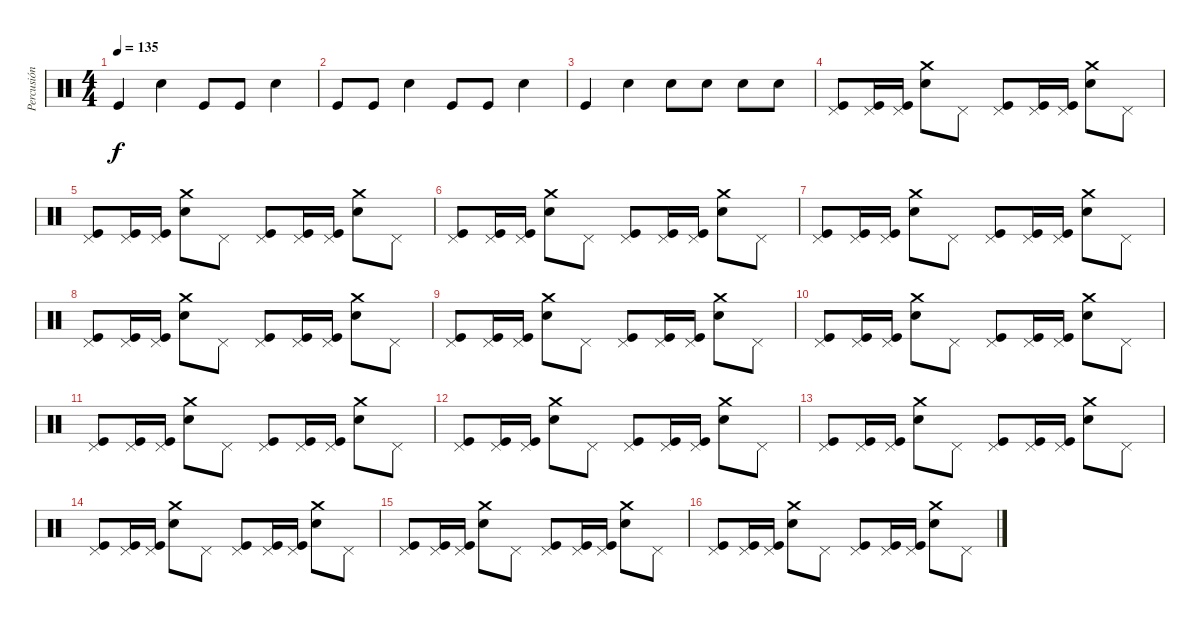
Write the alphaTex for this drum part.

\track ("Percusión" "Percusión") {instrument percussion}
\staff {score}
\articulation defaults
\ts (4 4)
\tempo 135
\clef neutral
\ks c "Kick (hit)".4{dy f} "Electric Snare (hit)".4 "Kick (hit)".8 "Kick (hit)".8 "Electric Snare (hit)".4
|
"Kick (hit)".8 "Kick (hit)".8 "Electric Snare (hit)".4 "Kick (hit)".8 "Kick (hit)".8 "Electric Snare (hit)".4 |
"Kick (hit)".4 "Electric Snare (hit)".4 "Electric Snare (hit)".8 "Electric Snare (hit)".8 "Electric Snare (hit)".8 "Electric Snare (hit)".8 |
("Pedal Hi-Hat (hit)" "Kick (hit)").8 ("Pedal Hi-Hat (hit)" "Kick (hit)").16 ("Pedal Hi-Hat (hit)" "Kick (hit)").16 ("Crash medium (hit)" "Electric Snare (hit)").8 "Pedal Hi-Hat (hit)".8 ("Pedal Hi-Hat (hit)" "Kick (hit)").8 ("Pedal Hi-Hat (hit)" "Kick (hit)").16 ("Pedal Hi-Hat (hit)" "Kick (hit)").16 ("Crash medium (hit)" "Electric Snare (hit)").8 "Pedal Hi-Hat (hit)".8 |
("Pedal Hi-Hat (hit)" "Kick (hit)").8 ("Pedal Hi-Hat (hit)" "Kick (hit)").16 ("Pedal Hi-Hat (hit)" "Kick (hit)").16 ("Crash medium (hit)" "Electric Snare (hit)").8 "Pedal Hi-Hat (hit)".8 ("Pedal Hi-Hat (hit)" "Kick (hit)").8 ("Pedal Hi-Hat (hit)" "Kick (hit)").16 ("Pedal Hi-Hat (hit)" "Kick (hit)").16 ("Crash medium (hit)" "Electric Snare (hit)").8 "Pedal Hi-Hat (hit)".8 |
("Pedal Hi-Hat (hit)" "Kick (hit)").8 ("Pedal Hi-Hat (hit)" "Kick (hit)").16 ("Pedal Hi-Hat (hit)" "Kick (hit)").16 ("Crash medium (hit)" "Electric Snare (hit)").8 "Pedal Hi-Hat (hit)".8 ("Pedal Hi-Hat (hit)" "Kick (hit)").8 ("Pedal Hi-Hat (hit)" "Kick (hit)").16 ("Pedal Hi-Hat (hit)" "Kick (hit)").16 ("Crash medium (hit)" "Electric Snare (hit)").8 "Pedal Hi-Hat (hit)".8 |
("Pedal Hi-Hat (hit)" "Kick (hit)").8 ("Pedal Hi-Hat (hit)" "Kick (hit)").16 ("Pedal Hi-Hat (hit)" "Kick (hit)").16 ("Crash medium (hit)" "Electric Snare (hit)").8 "Pedal Hi-Hat (hit)".8 ("Pedal Hi-Hat (hit)" "Kick (hit)").8 ("Pedal Hi-Hat (hit)" "Kick (hit)").16 ("Pedal Hi-Hat (hit)" "Kick (hit)").16 ("Crash medium (hit)" "Electric Snare (hit)").8 "Pedal Hi-Hat (hit)".8 |
("Pedal Hi-Hat (hit)" "Kick (hit)").8 ("Pedal Hi-Hat (hit)" "Kick (hit)").16 ("Pedal Hi-Hat (hit)" "Kick (hit)").16 ("Crash medium (hit)" "Electric Snare (hit)").8 "Pedal Hi-Hat (hit)".8 ("Pedal Hi-Hat (hit)" "Kick (hit)").8 ("Pedal Hi-Hat (hit)" "Kick (hit)").16 ("Pedal Hi-Hat (hit)" "Kick (hit)").16 ("Crash medium (hit)" "Electric Snare (hit)").8 "Pedal Hi-Hat (hit)".8 |
("Pedal Hi-Hat (hit)" "Kick (hit)").8 ("Pedal Hi-Hat (hit)" "Kick (hit)").16 ("Pedal Hi-Hat (hit)" "Kick (hit)").16 ("Crash medium (hit)" "Electric Snare (hit)").8 "Pedal Hi-Hat (hit)".8 ("Pedal Hi-Hat (hit)" "Kick (hit)").8 ("Pedal Hi-Hat (hit)" "Kick (hit)").16 ("Pedal Hi-Hat (hit)" "Kick (hit)").16 ("Crash medium (hit)" "Electric Snare (hit)").8 "Pedal Hi-Hat (hit)".8 |
("Pedal Hi-Hat (hit)" "Kick (hit)").8 ("Pedal Hi-Hat (hit)" "Kick (hit)").16 ("Pedal Hi-Hat (hit)" "Kick (hit)").16 ("Crash medium (hit)" "Electric Snare (hit)").8 "Pedal Hi-Hat (hit)".8 ("Pedal Hi-Hat (hit)" "Kick (hit)").8 ("Pedal Hi-Hat (hit)" "Kick (hit)").16 ("Pedal Hi-Hat (hit)" "Kick (hit)").16 ("Crash medium (hit)" "Electric Snare (hit)").8 "Pedal Hi-Hat (hit)".8 |
("Pedal Hi-Hat (hit)" "Kick (hit)").8 ("Pedal Hi-Hat (hit)" "Kick (hit)").16 ("Pedal Hi-Hat (hit)" "Kick (hit)").16 ("Crash medium (hit)" "Electric Snare (hit)").8 "Pedal Hi-Hat (hit)".8 ("Pedal Hi-Hat (hit)" "Kick (hit)").8 ("Pedal Hi-Hat (hit)" "Kick (hit)").16 ("Pedal Hi-Hat (hit)" "Kick (hit)").16 ("Crash medium (hit)" "Electric Snare (hit)").8 "Pedal Hi-Hat (hit)".8 |
("Pedal Hi-Hat (hit)" "Kick (hit)").8 ("Pedal Hi-Hat (hit)" "Kick (hit)").16 ("Pedal Hi-Hat (hit)" "Kick (hit)").16 ("Crash medium (hit)" "Electric Snare (hit)").8 "Pedal Hi-Hat (hit)".8 ("Pedal Hi-Hat (hit)" "Kick (hit)").8 ("Pedal Hi-Hat (hit)" "Kick (hit)").16 ("Pedal Hi-Hat (hit)" "Kick (hit)").16 ("Crash medium (hit)" "Electric Snare (hit)").8 "Pedal Hi-Hat (hit)".8 |
("Pedal Hi-Hat (hit)" "Kick (hit)").8 ("Pedal Hi-Hat (hit)" "Kick (hit)").16 ("Pedal Hi-Hat (hit)" "Kick (hit)").16 ("Crash medium (hit)" "Electric Snare (hit)").8 "Pedal Hi-Hat (hit)".8 ("Pedal Hi-Hat (hit)" "Kick (hit)").8 ("Pedal Hi-Hat (hit)" "Kick (hit)").16 ("Pedal Hi-Hat (hit)" "Kick (hit)").16 ("Crash medium (hit)" "Electric Snare (hit)").8 "Pedal Hi-Hat (hit)".8 |
("Pedal Hi-Hat (hit)" "Kick (hit)").8 ("Pedal Hi-Hat (hit)" "Kick (hit)").16 ("Pedal Hi-Hat (hit)" "Kick (hit)").16 ("Crash medium (hit)" "Electric Snare (hit)").8 "Pedal Hi-Hat (hit)".8 ("Pedal Hi-Hat (hit)" "Kick (hit)").8 ("Pedal Hi-Hat (hit)" "Kick (hit)").16 ("Pedal Hi-Hat (hit)" "Kick (hit)").16 ("Crash medium (hit)" "Electric Snare (hit)").8 "Pedal Hi-Hat (hit)".8 |
("Pedal Hi-Hat (hit)" "Kick (hit)").8 ("Pedal Hi-Hat (hit)" "Kick (hit)").16 ("Pedal Hi-Hat (hit)" "Kick (hit)").16 ("Crash medium (hit)" "Electric Snare (hit)").8 "Pedal Hi-Hat (hit)".8 ("Pedal Hi-Hat (hit)" "Kick (hit)").8 ("Pedal Hi-Hat (hit)" "Kick (hit)").16 ("Pedal Hi-Hat (hit)" "Kick (hit)").16 ("Crash medium (hit)" "Electric Snare (hit)").8 "Pedal Hi-Hat (hit)".8 |
("Pedal Hi-Hat (hit)" "Kick (hit)").8 ("Pedal Hi-Hat (hit)" "Kick (hit)").16 ("Pedal Hi-Hat (hit)" "Kick (hit)").16 ("Crash medium (hit)" "Electric Snare (hit)").8 "Pedal Hi-Hat (hit)".8 ("Pedal Hi-Hat (hit)" "Kick (hit)").8 ("Pedal Hi-Hat (hit)" "Kick (hit)").16 ("Pedal Hi-Hat (hit)" "Kick (hit)").16 ("Crash medium (hit)" "Electric Snare (hit)").8 "Pedal Hi-Hat (hit)".8
